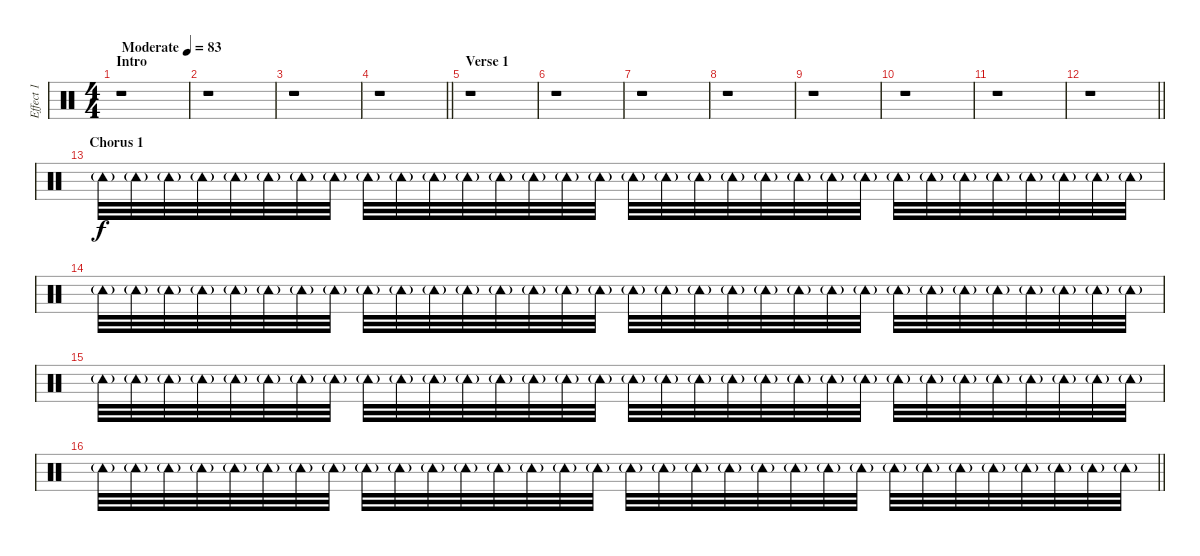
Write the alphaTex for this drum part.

\track ("Effect 1" "Effect 1") {instrument percussion}
\staff {score}
\articulation defaults
\ts (4 4)
\section ("" "Intro")
\tempo (83 "Moderate")
\clef neutral
\ks c
r.1{dy f} |
r.1 |
r.1 |
\barLineRight lightlight
r.1 |
\section ("" "Verse 1")
r.1 |
r.1 |
r.1 |
r.1 |
r.1 |
r.1 |
r.1 |
\barLineRight lightlight
r.1 |
\section ("" "Chorus 1")
"Tambourine (hit)"{g}.32 "Tambourine (hit)"{g}.32 "Tambourine (hit)"{g}.32 "Tambourine (hit)"{g}.32 "Tambourine (hit)"{g}.32 "Tambourine (hit)"{g}.32 "Tambourine (hit)"{g}.32 "Tambourine (hit)"{g}.32 "Tambourine (hit)"{g}.32 "Tambourine (hit)"{g}.32 "Tambourine (hit)"{g}.32 "Tambourine (hit)"{g}.32 "Tambourine (hit)"{g}.32 "Tambourine (hit)"{g}.32 "Tambourine (hit)"{g}.32 "Tambourine (hit)"{g}.32 "Tambourine (hit)"{g}.32 "Tambourine (hit)"{g}.32 "Tambourine (hit)"{g}.32 "Tambourine (hit)"{g}.32 "Tambourine (hit)"{g}.32 "Tambourine (hit)"{g}.32 "Tambourine (hit)"{g}.32 "Tambourine (hit)"{g}.32 "Tambourine (hit)"{g}.32 "Tambourine (hit)"{g}.32 "Tambourine (hit)"{g}.32 "Tambourine (hit)"{g}.32 "Tambourine (hit)"{g}.32 "Tambourine (hit)"{g}.32 "Tambourine (hit)"{g}.32 "Tambourine (hit)"{g}.32 |
"Tambourine (hit)"{g}.32 "Tambourine (hit)"{g}.32 "Tambourine (hit)"{g}.32 "Tambourine (hit)"{g}.32 "Tambourine (hit)"{g}.32 "Tambourine (hit)"{g}.32 "Tambourine (hit)"{g}.32 "Tambourine (hit)"{g}.32 "Tambourine (hit)"{g}.32 "Tambourine (hit)"{g}.32 "Tambourine (hit)"{g}.32 "Tambourine (hit)"{g}.32 "Tambourine (hit)"{g}.32 "Tambourine (hit)"{g}.32 "Tambourine (hit)"{g}.32 "Tambourine (hit)"{g}.32 "Tambourine (hit)"{g}.32 "Tambourine (hit)"{g}.32 "Tambourine (hit)"{g}.32 "Tambourine (hit)"{g}.32 "Tambourine (hit)"{g}.32 "Tambourine (hit)"{g}.32 "Tambourine (hit)"{g}.32 "Tambourine (hit)"{g}.32 "Tambourine (hit)"{g}.32 "Tambourine (hit)"{g}.32 "Tambourine (hit)"{g}.32 "Tambourine (hit)"{g}.32 "Tambourine (hit)"{g}.32 "Tambourine (hit)"{g}.32 "Tambourine (hit)"{g}.32 "Tambourine (hit)"{g}.32 |
"Tambourine (hit)"{g}.32 "Tambourine (hit)"{g}.32 "Tambourine (hit)"{g}.32 "Tambourine (hit)"{g}.32 "Tambourine (hit)"{g}.32 "Tambourine (hit)"{g}.32 "Tambourine (hit)"{g}.32 "Tambourine (hit)"{g}.32 "Tambourine (hit)"{g}.32 "Tambourine (hit)"{g}.32 "Tambourine (hit)"{g}.32 "Tambourine (hit)"{g}.32 "Tambourine (hit)"{g}.32 "Tambourine (hit)"{g}.32 "Tambourine (hit)"{g}.32 "Tambourine (hit)"{g}.32 "Tambourine (hit)"{g}.32 "Tambourine (hit)"{g}.32 "Tambourine (hit)"{g}.32 "Tambourine (hit)"{g}.32 "Tambourine (hit)"{g}.32 "Tambourine (hit)"{g}.32 "Tambourine (hit)"{g}.32 "Tambourine (hit)"{g}.32 "Tambourine (hit)"{g}.32 "Tambourine (hit)"{g}.32 "Tambourine (hit)"{g}.32 "Tambourine (hit)"{g}.32 "Tambourine (hit)"{g}.32 "Tambourine (hit)"{g}.32 "Tambourine (hit)"{g}.32 "Tambourine (hit)"{g}.32 |
\barLineRight lightlight "Tambourine (hit)"{g}.32 "Tambourine (hit)"{g}.32 "Tambourine (hit)"{g}.32 "Tambourine (hit)"{g}.32 "Tambourine (hit)"{g}.32 "Tambourine (hit)"{g}.32 "Tambourine (hit)"{g}.32 "Tambourine (hit)"{g}.32 "Tambourine (hit)"{g}.32 "Tambourine (hit)"{g}.32 "Tambourine (hit)"{g}.32 "Tambourine (hit)"{g}.32 "Tambourine (hit)"{g}.32 "Tambourine (hit)"{g}.32 "Tambourine (hit)"{g}.32 "Tambourine (hit)"{g}.32 "Tambourine (hit)"{g}.32 "Tambourine (hit)"{g}.32 "Tambourine (hit)"{g}.32 "Tambourine (hit)"{g}.32 "Tambourine (hit)"{g}.32 "Tambourine (hit)"{g}.32 "Tambourine (hit)"{g}.32 "Tambourine (hit)"{g}.32 "Tambourine (hit)"{g}.32 "Tambourine (hit)"{g}.32 "Tambourine (hit)"{g}.32 "Tambourine (hit)"{g}.32 "Tambourine (hit)"{g}.32 "Tambourine (hit)"{g}.32 "Tambourine (hit)"{g}.32 "Tambourine (hit)"{g}.32
